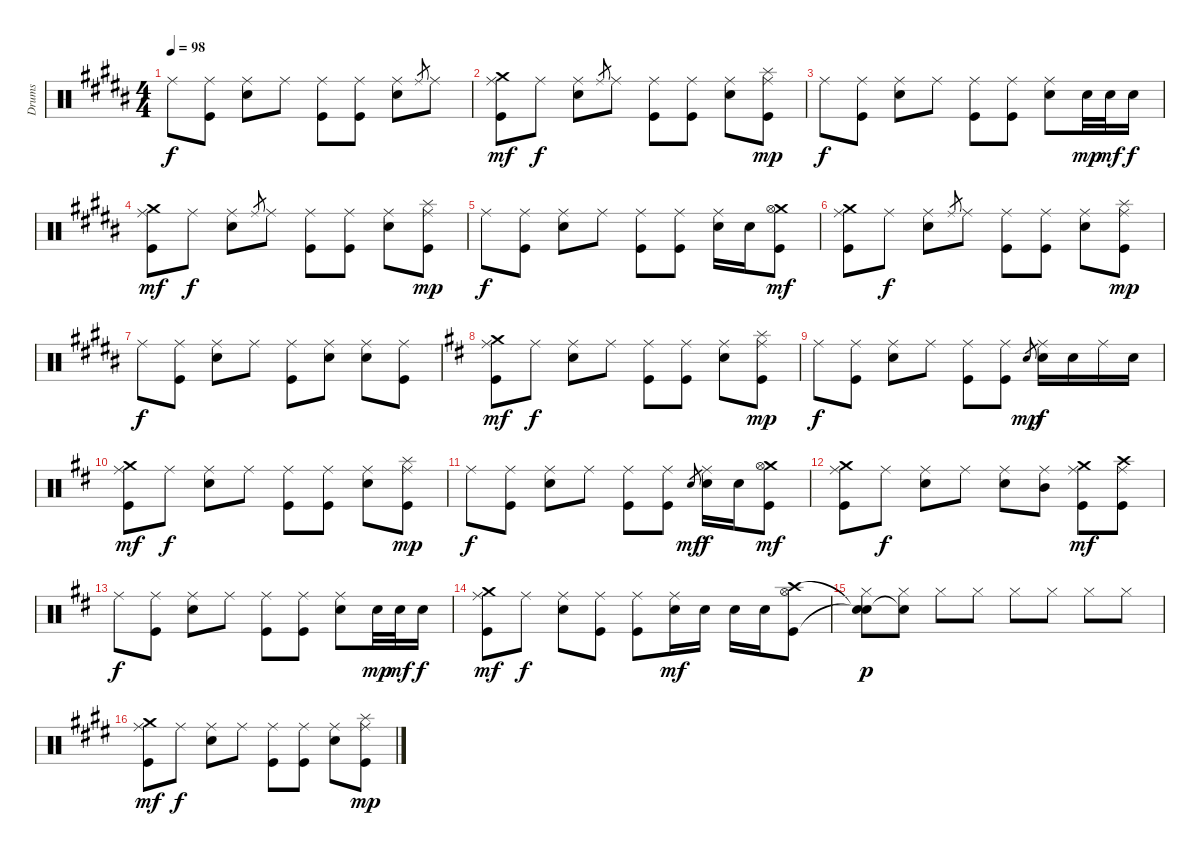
\track ("Drums" "Drums") {instrument percussion}
\staff {score}
\articulation defaults
\ts (4 4)
\tempo 98
\clef neutral
\ks g#minor "Ride (middle)".8{dy f}
("Ride (middle)" "Kick (hit)").8 ("Ride (middle)" "Electric Snare (hit)").8 "Ride (middle)".8 ("Ride (middle)" "Kick (hit)").8 ("Ride (middle)" "Kick (hit)").8 ("Ride (middle)" "Electric Snare (hit)").8 "Ride (middle)".8{gr} "Ride (middle)".8 |
("Crash medium (hit)" "Ride (middle)" "Kick (hit)").8{dy mf} "Ride (middle)".8{dy f} ("Ride (middle)" "Electric Snare (hit)").8 "Ride (middle)".8{gr} "Ride (middle)".8 ("Ride (middle)" "Kick (hit)").8 ("Ride (middle)" "Kick (hit)").8 ("Ride (middle)" "Electric Snare (hit)").8 ("Splash (hit)" "Ride (middle)" "Kick (hit)").8{dy mp} |
"Ride (middle)".8{dy f} ("Ride (middle)" "Kick (hit)").8 ("Ride (middle)" "Electric Snare (hit)").8 "Ride (middle)".8 ("Ride (middle)" "Kick (hit)").8 ("Ride (middle)" "Kick (hit)").8 ("Ride (middle)" "Electric Snare (hit)").8 "Electric Snare (hit)".32{dy mp} "Electric Snare (hit)".32{dy mf} "Electric Snare (hit)".16{dy f} |
("Crash medium (hit)" "Ride (middle)" "Kick (hit)").8{dy mf} "Ride (middle)".8{dy f} ("Ride (middle)" "Electric Snare (hit)").8 "Ride (middle)".8{gr} "Ride (middle)".8 ("Ride (middle)" "Kick (hit)").8 ("Ride (middle)" "Kick (hit)").8 ("Ride (middle)" "Electric Snare (hit)").8 ("Splash (hit)" "Ride (middle)" "Kick (hit)").8{dy mp} |
"Ride (middle)".8{dy f} ("Ride (middle)" "Kick (hit)").8 ("Ride (middle)" "Electric Snare (hit)").8 "Ride (middle)".8 ("Ride (middle)" "Kick (hit)").8 ("Ride (middle)" "Kick (hit)").8 ("Ride (middle)" "Electric Snare (hit)").16 "Electric Snare (hit)".16 ("Crash medium (hit)" "Hi-Hat (open)" "Kick (hit)").8{dy mf} |
("Crash medium (hit)" "Ride (middle)" "Kick (hit)").8 "Ride (middle)".8{dy f} ("Ride (middle)" "Electric Snare (hit)").8 "Ride (middle)".8{gr} "Ride (middle)".8 ("Ride (middle)" "Kick (hit)").8 ("Ride (middle)" "Kick (hit)").8 ("Ride (middle)" "Electric Snare (hit)").8 ("Splash (hit)" "Ride (middle)" "Kick (hit)").8{dy mp} |
"Ride (middle)".8{dy f} ("Ride (middle)" "Kick (hit)").8 ("Ride (middle)" "Electric Snare (hit)").8 "Ride (middle)".8 ("Ride (middle)" "Kick (hit)").8 ("Ride (middle)" "Electric Snare (hit)").8 ("Ride (middle)" "Electric Snare (hit)").8 ("Ride (middle)" "Kick (hit)").8 |
\ks d
("Crash medium (hit)" "Ride (middle)" "Kick (hit)").8{dy mf} "Ride (middle)".8{dy f} ("Ride (middle)" "Electric Snare (hit)").8 "Ride (middle)".8 ("Ride (middle)" "Kick (hit)").8 ("Ride (middle)" "Kick (hit)").8 ("Ride (middle)" "Electric Snare (hit)").8 ("Splash (hit)" "Ride (middle)" "Kick (hit)").8{dy mp} |
"Ride (middle)".8{dy f} ("Ride (middle)" "Kick (hit)").8 ("Ride (middle)" "Electric Snare (hit)").8 "Ride (middle)".8 ("Ride (middle)" "Kick (hit)").8 ("Ride (middle)" "Kick (hit)").8 "Electric Snare (hit)".8{gr dy mp} ("Ride (middle)" "Electric Snare (hit)").16{dy f} "Electric Snare (hit)".16 "Ride (middle)".16 "Electric Snare (hit)".16 |
("Crash medium (hit)" "Ride (middle)" "Kick (hit)").8{dy mf} "Ride (middle)".8{dy f} ("Ride (middle)" "Electric Snare (hit)").8 "Ride (middle)".8 ("Ride (middle)" "Kick (hit)").8 ("Ride (middle)" "Kick (hit)").8 ("Ride (middle)" "Electric Snare (hit)").8 ("Splash (hit)" "Ride (middle)" "Kick (hit)").8{dy mp} |
"Ride (middle)".8{dy f} ("Ride (middle)" "Kick (hit)").8 ("Ride (middle)" "Electric Snare (hit)").8 "Ride (middle)".8 ("Ride (middle)" "Kick (hit)").8 ("Ride (middle)" "Kick (hit)").8 "Electric Snare (hit)".8{gr dy mf} ("Ride (middle)" "Electric Snare (hit)").16{dy f} "Electric Snare (hit)".16 ("Crash medium (hit)" "Hi-Hat (open)" "Kick (hit)").8{dy mf} |
("Crash medium (hit)" "Ride (middle)" "Kick (hit)").8 "Ride (middle)".8{dy f} ("Ride (middle)" "Electric Snare (hit)").8 "Ride (middle)".8 ("Ride (middle)" "Electric Snare (hit)").8 ("Ride (middle)" "Mid Tom (hit)").8 ("Crash medium (hit)" "Ride (middle)" "Kick (hit)").8{dy mf} ("Crash high (hit)" "Ride (middle)" "Kick (hit)").8 |
"Ride (middle)".8{dy f} ("Ride (middle)" "Kick (hit)").8 ("Ride (middle)" "Electric Snare (hit)").8 "Ride (middle)".8 ("Ride (middle)" "Kick (hit)").8 ("Ride (middle)" "Kick (hit)").8 ("Ride (middle)" "Electric Snare (hit)").8 "Electric Snare (hit)".32{dy mp} "Electric Snare (hit)".32{dy mf} "Electric Snare (hit)".16{dy f} |
("Crash medium (hit)" "Ride (middle)" "Kick (hit)").8{dy mf} "Ride (middle)".8{dy f} ("Ride (middle)" "Electric Snare (hit)").8 ("Ride (middle)" "Kick (hit)").8 ("Ride (middle)" "Kick (hit)").8 ("Ride (middle)" "Electric Snare (hit)").16{dy mf} "Electric Snare (hit)".16 "Electric Snare (hit)".16 "Electric Snare (hit)".16 ("Crash high (hit)" "Hi-Hat (open)" "Kick (hit)").8 |
("Snare (hit)"{t} "Hi-Hat (closed)" "Snare (hit)"{t}).8{dy p} ("Snare (hit)"{t} "Hi-Hat (closed)").8 "Hi-Hat (closed)".8 "Hi-Hat (closed)".8 "Hi-Hat (closed)".8 "Hi-Hat (closed)".8 "Hi-Hat (closed)".8 "Hi-Hat (closed)".8 |
\ks c#minor
("Crash medium (hit)" "Ride (middle)" "Kick (hit)").8{dy mf} "Ride (middle)".8{dy f} ("Ride (middle)" "Electric Snare (hit)").8 "Ride (middle)".8 ("Ride (middle)" "Kick (hit)").8 ("Ride (middle)" "Kick (hit)").8 ("Ride (middle)" "Electric Snare (hit)").8 ("Splash (hit)" "Ride (middle)" "Kick (hit)").8{dy mp}
